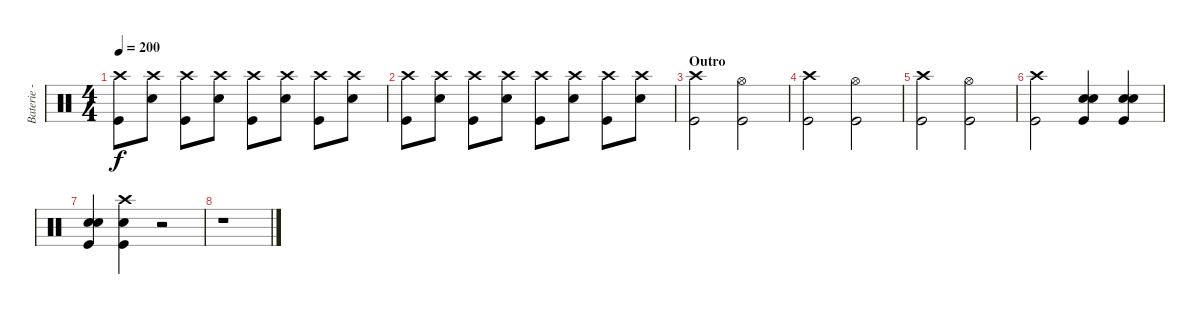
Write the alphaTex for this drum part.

\track ("Baterie - Alex" "Baterie - ") {instrument percussion}
\staff {score}
\articulation defaults
\ts (4 4)
\tempo 200
\clef neutral
\ks c
("Crash high (hit)" "Kick (hit)").8{dy f} ("Crash high (hit)" "Electric Snare (hit)").8 ("Crash high (hit)" "Kick (hit)").8 ("Crash high (hit)" "Electric Snare (hit)").8 ("Crash high (hit)" "Kick (hit)").8 ("Crash high (hit)" "Electric Snare (hit)").8 ("Crash high (hit)" "Kick (hit)").8 ("Crash high (hit)" "Electric Snare (hit)").8 |
("Crash high (hit)" "Kick (hit)").8 ("Crash high (hit)" "Electric Snare (hit)").8 ("Crash high (hit)" "Kick (hit)").8 ("Crash high (hit)" "Electric Snare (hit)").8 ("Crash high (hit)" "Kick (hit)").8 ("Crash high (hit)" "Electric Snare (hit)").8 ("Crash high (hit)" "Kick (hit)").8 ("Crash high (hit)" "Electric Snare (hit)").8 |
\section ("" "Outro")
("Crash high (hit)" "Kick (hit)").2 ("Hi-Hat (open)" "Kick (hit)").2 |
("Crash high (hit)" "Kick (hit)").2 ("Hi-Hat (open)" "Kick (hit)").2 |
("Crash high (hit)" "Kick (hit)").2 ("Hi-Hat (open)" "Kick (hit)").2 |
("Crash high (hit)" "Kick (hit)").2 ("Electric Snare (hit)" "Electric Snare (hit)" "Kick (hit)").4 ("Electric Snare (hit)" "Electric Snare (hit)" "Kick (hit)").4 |
("Electric Snare (hit)" "Electric Snare (hit)" "Kick (hit)").4 ("Crash high (hit)" "Electric Snare (hit)" "Kick (hit)").4 r.2 |
r.1
